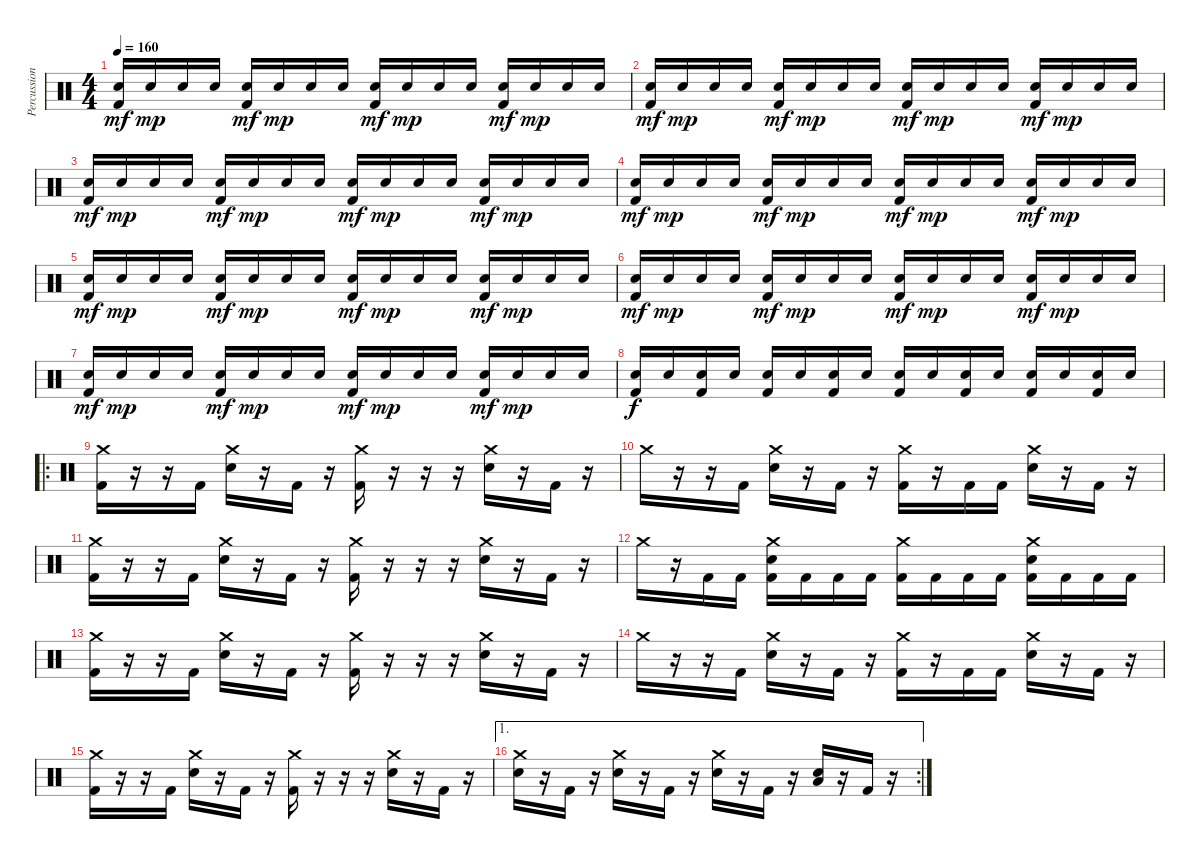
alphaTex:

\track ("Percussions" "Percussion") {instrument percussion}
\staff {score}
\articulation defaults
\ts (4 4)
\tempo 160
\clef neutral
\ks c
("Kick (hit) 2" "Electric Snare (hit)").16{dy mf} "Electric Snare (hit)".16{dy mp} "Electric Snare (hit)".16 "Electric Snare (hit)".16 ("Kick (hit) 2" "Electric Snare (hit)").16{dy mf} "Electric Snare (hit)".16{dy mp} "Electric Snare (hit)".16 "Electric Snare (hit)".16 ("Kick (hit) 2" "Electric Snare (hit)").16{dy mf} "Electric Snare (hit)".16{dy mp} "Electric Snare (hit)".16 "Electric Snare (hit)".16 ("Kick (hit) 2" "Electric Snare (hit)").16{dy mf} "Electric Snare (hit)".16{dy mp} "Electric Snare (hit)".16 "Electric Snare (hit)".16 |
("Kick (hit) 2" "Electric Snare (hit)").16{dy mf} "Electric Snare (hit)".16{dy mp} "Electric Snare (hit)".16 "Electric Snare (hit)".16 ("Kick (hit) 2" "Electric Snare (hit)").16{dy mf} "Electric Snare (hit)".16{dy mp} "Electric Snare (hit)".16 "Electric Snare (hit)".16 ("Kick (hit) 2" "Electric Snare (hit)").16{dy mf} "Electric Snare (hit)".16{dy mp} "Electric Snare (hit)".16 "Electric Snare (hit)".16 ("Kick (hit) 2" "Electric Snare (hit)").16{dy mf} "Electric Snare (hit)".16{dy mp} "Electric Snare (hit)".16 "Electric Snare (hit)".16 |
("Kick (hit) 2" "Electric Snare (hit)").16{dy mf} "Electric Snare (hit)".16{dy mp} "Electric Snare (hit)".16 "Electric Snare (hit)".16 ("Kick (hit) 2" "Electric Snare (hit)").16{dy mf} "Electric Snare (hit)".16{dy mp} "Electric Snare (hit)".16 "Electric Snare (hit)".16 ("Kick (hit) 2" "Electric Snare (hit)").16{dy mf} "Electric Snare (hit)".16{dy mp} "Electric Snare (hit)".16 "Electric Snare (hit)".16 ("Kick (hit) 2" "Electric Snare (hit)").16{dy mf} "Electric Snare (hit)".16{dy mp} "Electric Snare (hit)".16 "Electric Snare (hit)".16 |
("Kick (hit) 2" "Electric Snare (hit)").16{dy mf} "Electric Snare (hit)".16{dy mp} "Electric Snare (hit)".16 "Electric Snare (hit)".16 ("Kick (hit) 2" "Electric Snare (hit)").16{dy mf} "Electric Snare (hit)".16{dy mp} "Electric Snare (hit)".16 "Electric Snare (hit)".16 ("Kick (hit) 2" "Electric Snare (hit)").16{dy mf} "Electric Snare (hit)".16{dy mp} "Electric Snare (hit)".16 "Electric Snare (hit)".16 ("Kick (hit) 2" "Electric Snare (hit)").16{dy mf} "Electric Snare (hit)".16{dy mp} "Electric Snare (hit)".16 "Electric Snare (hit)".16 |
("Kick (hit) 2" "Electric Snare (hit)").16{dy mf} "Electric Snare (hit)".16{dy mp} "Electric Snare (hit)".16 "Electric Snare (hit)".16 ("Kick (hit) 2" "Electric Snare (hit)").16{dy mf} "Electric Snare (hit)".16{dy mp} "Electric Snare (hit)".16 "Electric Snare (hit)".16 ("Kick (hit) 2" "Electric Snare (hit)").16{dy mf} "Electric Snare (hit)".16{dy mp} "Electric Snare (hit)".16 "Electric Snare (hit)".16 ("Kick (hit) 2" "Electric Snare (hit)").16{dy mf} "Electric Snare (hit)".16{dy mp} "Electric Snare (hit)".16 "Electric Snare (hit)".16 |
("Kick (hit) 2" "Electric Snare (hit)").16{dy mf} "Electric Snare (hit)".16{dy mp} "Electric Snare (hit)".16 "Electric Snare (hit)".16 ("Kick (hit) 2" "Electric Snare (hit)").16{dy mf} "Electric Snare (hit)".16{dy mp} "Electric Snare (hit)".16 "Electric Snare (hit)".16 ("Kick (hit) 2" "Electric Snare (hit)").16{dy mf} "Electric Snare (hit)".16{dy mp} "Electric Snare (hit)".16 "Electric Snare (hit)".16 ("Kick (hit) 2" "Electric Snare (hit)").16{dy mf} "Electric Snare (hit)".16{dy mp} "Electric Snare (hit)".16 "Electric Snare (hit)".16 |
("Kick (hit) 2" "Electric Snare (hit)").16{dy mf} "Electric Snare (hit)".16{dy mp} "Electric Snare (hit)".16 "Electric Snare (hit)".16 ("Kick (hit) 2" "Electric Snare (hit)").16{dy mf} "Electric Snare (hit)".16{dy mp} "Electric Snare (hit)".16 "Electric Snare (hit)".16 ("Kick (hit) 2" "Electric Snare (hit)").16{dy mf} "Electric Snare (hit)".16{dy mp} "Electric Snare (hit)".16 "Electric Snare (hit)".16 ("Kick (hit) 2" "Electric Snare (hit)").16{dy mf} "Electric Snare (hit)".16{dy mp} "Electric Snare (hit)".16 "Electric Snare (hit)".16 |
("Kick (hit) 2" "Electric Snare (hit)").16{dy f} "Electric Snare (hit)".16 ("Kick (hit) 2" "Electric Snare (hit)").16 "Electric Snare (hit)".16 ("Kick (hit) 2" "Electric Snare (hit)").16 "Electric Snare (hit)".16 ("Kick (hit) 2" "Electric Snare (hit)").16 "Electric Snare (hit)".16 ("Kick (hit) 2" "Electric Snare (hit)").16 "Electric Snare (hit)".16 ("Kick (hit) 2" "Electric Snare (hit)").16 "Electric Snare (hit)".16 ("Kick (hit) 2" "Electric Snare (hit)").16 "Electric Snare (hit)".16 ("Kick (hit) 2" "Electric Snare (hit)").16 "Electric Snare (hit)".16 |
\ro
("Kick (hit) 2" "Crash medium (hit)").16 r.16 r.16 "Kick (hit) 2".16 ("Electric Snare (hit)" "Crash medium (hit)").16 r.16 "Kick (hit) 2".16 r.16 ("Kick (hit) 2" "Crash medium (hit)").16 r.16 r.16 r.16 ("Electric Snare (hit)" "Crash medium (hit)").16 r.16 "Kick (hit) 2".16 r.16 |
"Crash medium (hit)".16 r.16 r.16 "Kick (hit) 2".16 ("Electric Snare (hit)" "Crash medium (hit)").16 r.16 "Kick (hit) 2".16 r.16 ("Kick (hit) 2" "Crash medium (hit)").16 r.16 "Kick (hit) 2".16 "Kick (hit) 2".16 ("Electric Snare (hit)" "Crash medium (hit)").16 r.16 "Kick (hit) 2".16 r.16 |
("Kick (hit) 2" "Crash medium (hit)").16 r.16 r.16 "Kick (hit) 2".16 ("Electric Snare (hit)" "Crash medium (hit)").16 r.16 "Kick (hit) 2".16 r.16 ("Kick (hit) 2" "Crash medium (hit)").16 r.16 r.16 r.16 ("Electric Snare (hit)" "Crash medium (hit)").16 r.16 "Kick (hit) 2".16 r.16 |
"Crash medium (hit)".16 r.16 "Kick (hit) 2".16 "Kick (hit) 2".16 ("Kick (hit) 2" "Electric Snare (hit)" "Crash medium (hit)").16 "Kick (hit) 2".16 "Kick (hit) 2".16 "Kick (hit) 2".16 ("Kick (hit) 2" "Crash medium (hit)").16 "Kick (hit) 2".16 "Kick (hit) 2".16 "Kick (hit) 2".16 ("Kick (hit) 2" "Electric Snare (hit)" "Crash medium (hit)").16 "Kick (hit) 2".16 "Kick (hit) 2".16 "Kick (hit) 2".16 |
("Kick (hit) 2" "Crash medium (hit)").16 r.16 r.16 "Kick (hit) 2".16 ("Electric Snare (hit)" "Crash medium (hit)").16 r.16 "Kick (hit) 2".16 r.16 ("Kick (hit) 2" "Crash medium (hit)").16 r.16 r.16 r.16 ("Electric Snare (hit)" "Crash medium (hit)").16 r.16 "Kick (hit) 2".16 r.16 |
"Crash medium (hit)".16 r.16 r.16 "Kick (hit) 2".16 ("Electric Snare (hit)" "Crash medium (hit)").16 r.16 "Kick (hit) 2".16 r.16 ("Kick (hit) 2" "Crash medium (hit)").16 r.16 "Kick (hit) 2".16 "Kick (hit) 2".16 ("Electric Snare (hit)" "Crash medium (hit)").16 r.16 "Kick (hit) 2".16 r.16 |
("Kick (hit) 2" "Crash medium (hit)").16 r.16 r.16 "Kick (hit) 2".16 ("Electric Snare (hit)" "Crash medium (hit)").16 r.16 "Kick (hit) 2".16 r.16 ("Kick (hit) 2" "Crash medium (hit)").16 r.16 r.16 r.16 ("Electric Snare (hit)" "Crash medium (hit)").16 r.16 "Kick (hit) 2".16 r.16 |
\ae 1
\rc 2
("Electric Snare (hit)" "Crash medium (hit)").16 r.16 "Kick (hit) 2".16 r.16 ("Electric Snare (hit)" "Crash medium (hit)").16 r.16 "Kick (hit) 2".16 r.16 ("Electric Snare (hit)" "Crash medium (hit)").16 r.16 "Kick (hit) 2".16 r.16 ("Electric Snare (hit)" "Low Tom (hit)").16 r.16 "Kick (hit) 2".16 r.16
